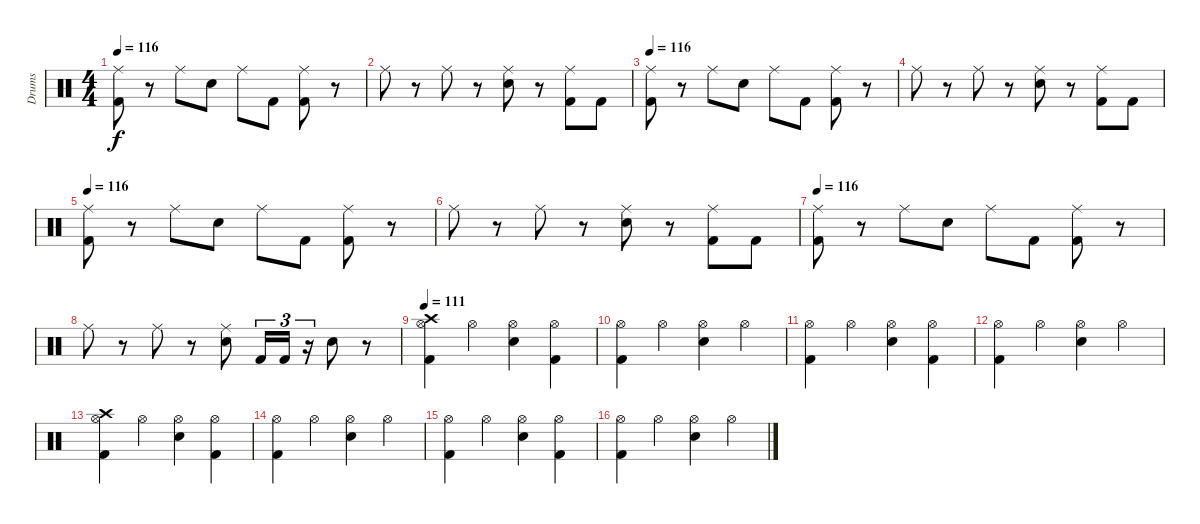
\track ("Drums" "Drums") {instrument percussion}
\staff {score}
\articulation defaults
\ts (4 4)
\tempo 116
\clef neutral
\ks c
("Ride (middle)" "Kick (hit) 2").8{dy f} r.8 "Ride (middle)".8 "Electric Snare (hit)".8 "Ride (middle)".8 "Kick (hit) 2".8 ("Ride (middle)" "Kick (hit) 2").8 r.8 |
"Ride (middle)".8 r.8 "Ride (middle)".8 r.8 ("Ride (middle)" "Electric Snare (hit)").8 r.8 ("Ride (middle)" "Kick (hit) 2").8 "Kick (hit) 2".8 |
\tempo 116
("Ride (middle)" "Kick (hit) 2").8 r.8 "Ride (middle)".8 "Electric Snare (hit)".8 "Ride (middle)".8 "Kick (hit) 2".8 ("Ride (middle)" "Kick (hit) 2").8 r.8 |
"Ride (middle)".8 r.8 "Ride (middle)".8 r.8 ("Ride (middle)" "Electric Snare (hit)").8 r.8 ("Ride (middle)" "Kick (hit) 2").8 "Kick (hit) 2".8 |
\tempo 116
("Ride (middle)" "Kick (hit) 2").8 r.8 "Ride (middle)".8 "Electric Snare (hit)".8 "Ride (middle)".8 "Kick (hit) 2".8 ("Ride (middle)" "Kick (hit) 2").8 r.8 |
"Ride (middle)".8 r.8 "Ride (middle)".8 r.8 ("Ride (middle)" "Electric Snare (hit)").8 r.8 ("Ride (middle)" "Kick (hit) 2").8 "Kick (hit) 2".8 |
\tempo 116
("Ride (middle)" "Kick (hit) 2").8 r.8 "Ride (middle)".8 "Electric Snare (hit)".8 "Ride (middle)".8 "Kick (hit) 2".8 ("Ride (middle)" "Kick (hit) 2").8 r.8 |
"Ride (middle)".8 r.8 "Ride (middle)".8 r.8 ("Ride (middle)" "Electric Snare (hit)").8 "Kick (hit) 2".16{tu (3 2)} "Kick (hit) 2".16{tu (3 2)} r.16{tu (3 2)} "Electric Snare (hit)".8 r.8 |
\tempo 111
("Crash high (hit)" "Hi-Hat (open)" "Kick (hit) 2").4 "Hi-Hat (open)".4 ("Hi-Hat (open)" "Electric Snare (hit)").4 ("Hi-Hat (open)" "Kick (hit) 2").4 |
("Hi-Hat (open)" "Kick (hit) 2").4 "Hi-Hat (open)".4 ("Hi-Hat (open)" "Electric Snare (hit)").4 "Hi-Hat (open)".4 |
("Hi-Hat (open)" "Kick (hit) 2").4 "Hi-Hat (open)".4 ("Hi-Hat (open)" "Electric Snare (hit)").4 ("Hi-Hat (open)" "Kick (hit) 2").4 |
("Hi-Hat (open)" "Kick (hit) 2").4 "Hi-Hat (open)".4 ("Hi-Hat (open)" "Electric Snare (hit)").4 "Hi-Hat (open)".4 |
("Crash high (hit)" "Hi-Hat (open)" "Kick (hit) 2").4 "Hi-Hat (open)".4 ("Hi-Hat (open)" "Electric Snare (hit)").4 ("Hi-Hat (open)" "Kick (hit) 2").4 |
("Hi-Hat (open)" "Kick (hit) 2").4 "Hi-Hat (open)".4 ("Hi-Hat (open)" "Electric Snare (hit)").4 "Hi-Hat (open)".4 |
("Hi-Hat (open)" "Kick (hit) 2").4 "Hi-Hat (open)".4 ("Hi-Hat (open)" "Electric Snare (hit)").4 ("Hi-Hat (open)" "Kick (hit) 2").4 |
("Hi-Hat (open)" "Kick (hit) 2").4 "Hi-Hat (open)".4 ("Hi-Hat (open)" "Electric Snare (hit)").4 "Hi-Hat (open)".4
